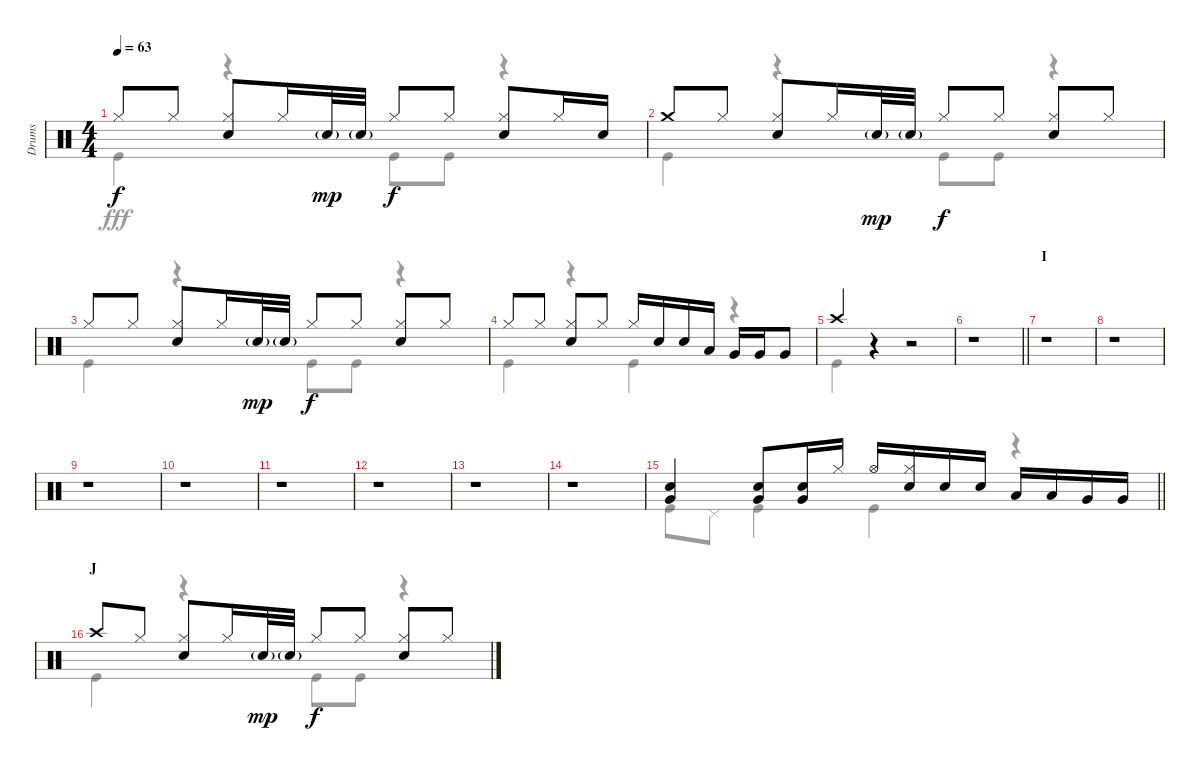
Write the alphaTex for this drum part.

\track ("Drums" "Drums") {instrument percussion}
\staff {score}
\articulation defaults
\voice
\ts (4 4)
\tempo 63
\clef neutral
\ks c "Hi-Hat (closed)".8{dy f} "Hi-Hat (closed)".8
("Hi-Hat (closed)" "Snare (hit) 2").8 "Hi-Hat (closed)".16 "Snare (hit) 2"{g}.32{dy mp} "Snare (hit) 2"{g}.32 "Hi-Hat (closed)".8{dy f} "Hi-Hat (closed)".8 ("Hi-Hat (closed)" "Snare (hit) 2").8 "Hi-Hat (closed)".16 "Snare (hit) 2".16 |
"Crash medium (hit)".8 "Hi-Hat (closed)".8 ("Hi-Hat (closed)" "Snare (hit) 2").8 "Hi-Hat (closed)".16 "Snare (hit) 2"{g}.32{dy mp} "Snare (hit) 2"{g}.32 "Hi-Hat (closed)".8{dy f} "Hi-Hat (closed)".8 ("Hi-Hat (closed)" "Snare (hit) 2").8 "Hi-Hat (closed)".8 |
"Hi-Hat (closed)".8 "Hi-Hat (closed)".8 ("Hi-Hat (closed)" "Snare (hit) 2").8 "Hi-Hat (closed)".16 "Snare (hit) 2"{g}.32{dy mp} "Snare (hit) 2"{g}.32 "Hi-Hat (closed)".8{dy f} "Hi-Hat (closed)".8 ("Hi-Hat (closed)" "Snare (hit) 2").8 "Hi-Hat (closed)".8 |
"Hi-Hat (closed)".8 "Hi-Hat (closed)".8 ("Hi-Hat (closed)" "Snare (hit) 2").8 "Hi-Hat (closed)".8 "Hi-Hat (closed)".16 "Snare (hit) 2".16 "Snare (hit) 2".16 "Low Tom (hit)".16 "Very Low Tom (hit)".16 "Very Low Tom (hit)".16 "Very Low Tom (hit)".8 |
"Crash high (hit)".4 r.4 r.2 |
\barLineRight lightlight
r.1 |
\section ("" "I")
r.1 |
r.1 |
r.1 |
r.1 |
r.1 |
r.1 |
r.1 |
r.1 |
\barLineRight lightlight
("Snare (hit) 2" "Very Low Tom (hit)").4 ("Snare (hit) 2" "Very Low Tom (hit)").8 ("Snare (hit) 2" "Very Low Tom (hit)").16 "Hi-Hat (closed)".16 "Hi-Hat (open)".16 ("Hi-Hat (closed)" "Snare (hit) 2").16 "Snare (hit) 2".16 "Snare (hit) 2".16 "Low Tom (hit)".16 "Low Tom (hit)".16 "Very Low Tom (hit)".16 "Very Low Tom (hit)".16 |
\section ("" "J")
"Crash high (hit)".8 "Hi-Hat (closed)".8 ("Hi-Hat (closed)" "Snare (hit) 2").8 "Hi-Hat (closed)".16 "Snare (hit) 2"{g}.32{dy mp} "Snare (hit) 2"{g}.32 "Hi-Hat (closed)".8{dy f} "Hi-Hat (closed)".8 ("Hi-Hat (closed)" "Snare (hit) 2").8 "Hi-Hat (closed)".8
\voice
\clef neutral
\ottava regular
\simile none
\ks c "Kick (hit)".4{dy fff}
r.4 "Kick (hit)".8 "Kick (hit)".8 r.4 |
"Kick (hit)".4 r.4 "Kick (hit)".8 "Kick (hit)".8 r.4 |
"Kick (hit)".4 r.4 "Kick (hit)".8 "Kick (hit)".8 r.4 |
"Kick (hit)".4 r.4 "Kick (hit)".4 r.4 |
"Kick (hit)".4 r.4 r.2 |
\barLineRight lightlight
r.1 |
r.1 |
r.1 |
r.1 |
r.1 |
r.1 |
r.1 |
r.1 |
r.1 |
\barLineRight lightlight "Kick (hit)".8 "Pedal Hi-Hat (hit)".8 "Kick (hit)".4 "Kick (hit)".4
r.4 |
"Kick (hit)".4 r.4 "Kick (hit)".8 "Kick (hit)".8 r.4
